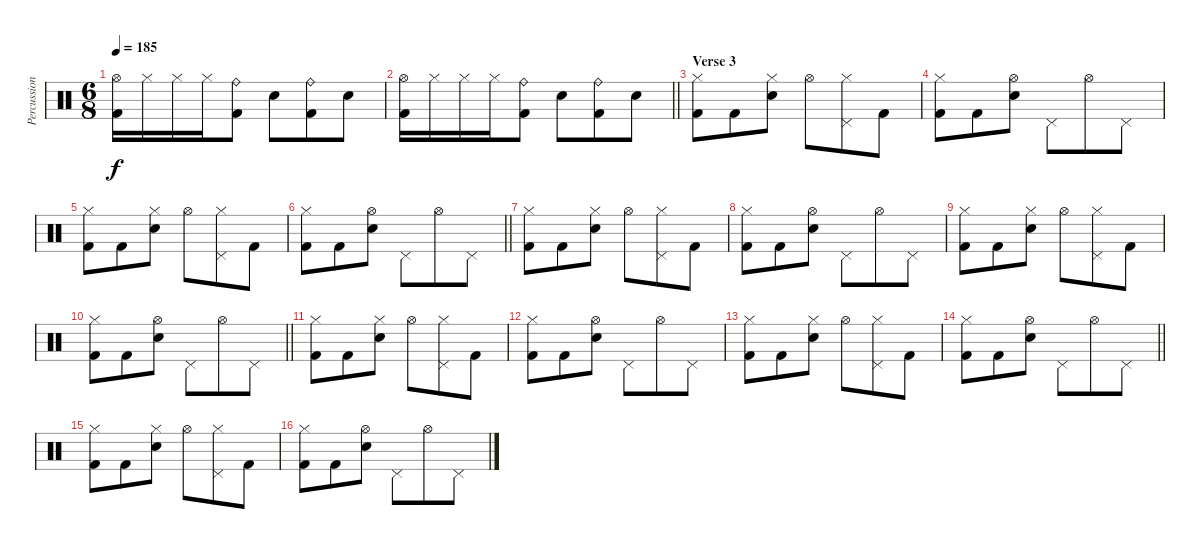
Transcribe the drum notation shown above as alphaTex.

\track ("Percussion" "Percussion") {instrument percussion}
\staff {score}
\articulation defaults
\ts (6 8)
\tempo 185
\clef neutral
\ks c
("Hi-Hat (open)" "Kick (hit) 2").16{dy f} "Hi-Hat (closed)".16 "Hi-Hat (closed)".16 "Hi-Hat (closed)".16 ("Ride (bell)" "Kick (hit) 2").8 "Snare (hit) 2".8 ("Ride (bell)" "Kick (hit) 2").8 "Snare (hit) 2".8 |
\barLineRight lightlight
("Hi-Hat (open)" "Kick (hit) 2").16 "Hi-Hat (closed)".16 "Hi-Hat (closed)".16 "Hi-Hat (closed)".16 ("Ride (bell)" "Kick (hit) 2").8 "Snare (hit) 2".8 ("Ride (bell)" "Kick (hit) 2").8 "Snare (hit) 2".8 |
\section ("" "Verse 3")
("Hi-Hat (closed)" "Kick (hit) 2").8 "Kick (hit) 2".8 ("Hi-Hat (closed)" "Snare (hit) 2").8 "Hi-Hat (open)".8 ("Hi-Hat (closed)" "Pedal Hi-Hat (hit)").8 "Kick (hit) 2".8 |
("Hi-Hat (closed)" "Kick (hit) 2").8 "Kick (hit) 2".8 ("Hi-Hat (open)" "Snare (hit) 2").8 "Pedal Hi-Hat (hit)".8 "Hi-Hat (open)".8 "Pedal Hi-Hat (hit)".8 |
("Hi-Hat (closed)" "Kick (hit) 2").8 "Kick (hit) 2".8 ("Hi-Hat (closed)" "Snare (hit) 2").8 "Hi-Hat (open)".8 ("Hi-Hat (closed)" "Pedal Hi-Hat (hit)").8 "Kick (hit) 2".8 |
\barLineRight lightlight
("Hi-Hat (closed)" "Kick (hit) 2").8 "Kick (hit) 2".8 ("Hi-Hat (open)" "Snare (hit) 2").8 "Pedal Hi-Hat (hit)".8 "Hi-Hat (open)".8 "Pedal Hi-Hat (hit)".8 |
("Hi-Hat (closed)" "Kick (hit) 2").8 "Kick (hit) 2".8 ("Hi-Hat (closed)" "Snare (hit) 2").8 "Hi-Hat (open)".8 ("Hi-Hat (closed)" "Pedal Hi-Hat (hit)").8 "Kick (hit) 2".8 |
("Hi-Hat (closed)" "Kick (hit) 2").8 "Kick (hit) 2".8 ("Hi-Hat (open)" "Snare (hit) 2").8 "Pedal Hi-Hat (hit)".8 "Hi-Hat (open)".8 "Pedal Hi-Hat (hit)".8 |
("Hi-Hat (closed)" "Kick (hit) 2").8 "Kick (hit) 2".8 ("Hi-Hat (closed)" "Snare (hit) 2").8 "Hi-Hat (open)".8 ("Hi-Hat (closed)" "Pedal Hi-Hat (hit)").8 "Kick (hit) 2".8 |
\barLineRight lightlight
("Hi-Hat (closed)" "Kick (hit) 2").8 "Kick (hit) 2".8 ("Hi-Hat (open)" "Snare (hit) 2").8 "Pedal Hi-Hat (hit)".8 "Hi-Hat (open)".8 "Pedal Hi-Hat (hit)".8 |
("Hi-Hat (closed)" "Kick (hit) 2").8 "Kick (hit) 2".8 ("Hi-Hat (closed)" "Snare (hit) 2").8 "Hi-Hat (open)".8 ("Hi-Hat (closed)" "Pedal Hi-Hat (hit)").8 "Kick (hit) 2".8 |
("Hi-Hat (closed)" "Kick (hit) 2").8 "Kick (hit) 2".8 ("Hi-Hat (open)" "Snare (hit) 2").8 "Pedal Hi-Hat (hit)".8 "Hi-Hat (open)".8 "Pedal Hi-Hat (hit)".8 |
("Hi-Hat (closed)" "Kick (hit) 2").8 "Kick (hit) 2".8 ("Hi-Hat (closed)" "Snare (hit) 2").8 "Hi-Hat (open)".8 ("Hi-Hat (closed)" "Pedal Hi-Hat (hit)").8 "Kick (hit) 2".8 |
\barLineRight lightlight
("Hi-Hat (closed)" "Kick (hit) 2").8 "Kick (hit) 2".8 ("Hi-Hat (open)" "Snare (hit) 2").8 "Pedal Hi-Hat (hit)".8 "Hi-Hat (open)".8 "Pedal Hi-Hat (hit)".8 |
("Hi-Hat (closed)" "Kick (hit) 2").8 "Kick (hit) 2".8 ("Hi-Hat (closed)" "Snare (hit) 2").8 "Hi-Hat (open)".8 ("Hi-Hat (closed)" "Pedal Hi-Hat (hit)").8 "Kick (hit) 2".8 |
("Hi-Hat (closed)" "Kick (hit) 2").8 "Kick (hit) 2".8 ("Hi-Hat (open)" "Snare (hit) 2").8 "Pedal Hi-Hat (hit)".8 "Hi-Hat (open)".8 "Pedal Hi-Hat (hit)".8
